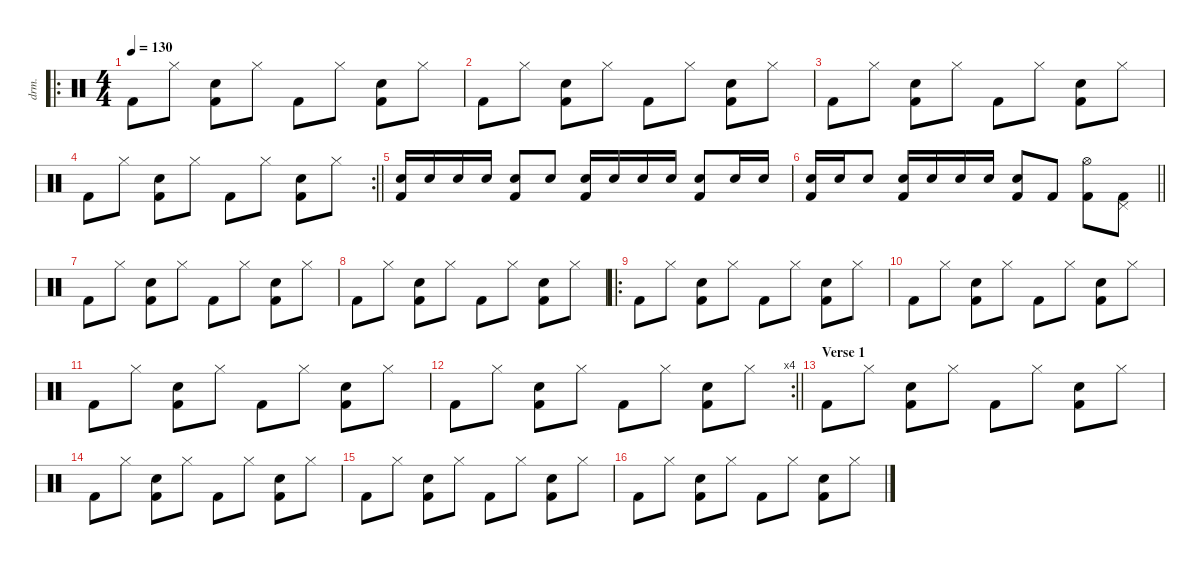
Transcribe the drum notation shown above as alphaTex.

\defaultSystemsLayout 4
\hideDynamics
\bracketExtendMode nobrackets
\otherSystemsTrackNameOrientation horizontal
\track ("Percussion" "drm.") {defaultSystemsLayout 4 instrument percussion}
\staff {score}
\articulation defaults
\ro
\ts (4 4)
\tempo 130
\clef neutral
\ks c "Kick (hit) 2".8{dy f beam Down} "Hi-Hat (closed)".8{beam Down}
("Snare (hit) 2" "Kick (hit) 2").8{beam Down} "Hi-Hat (closed)".8{beam Down} "Kick (hit) 2".8{beam Down} "Hi-Hat (closed)".8{beam Down} ("Snare (hit) 2" "Kick (hit) 2").8{beam Down} "Hi-Hat (closed)".8{beam Down} |
"Kick (hit) 2".8{beam Down} "Hi-Hat (closed)".8{beam Down} ("Snare (hit) 2" "Kick (hit) 2").8{beam Down} "Hi-Hat (closed)".8{beam Down} "Kick (hit) 2".8{beam Down} "Hi-Hat (closed)".8{beam Down} ("Snare (hit) 2" "Kick (hit) 2").8{beam Down} "Hi-Hat (closed)".8{beam Down} |
"Kick (hit) 2".8{beam Down} "Hi-Hat (closed)".8{beam Down} ("Snare (hit) 2" "Kick (hit) 2").8{beam Down} "Hi-Hat (closed)".8{beam Down} "Kick (hit) 2".8{beam Down} "Hi-Hat (closed)".8{beam Down} ("Snare (hit) 2" "Kick (hit) 2").8{beam Down} "Hi-Hat (closed)".8{beam Down} |
\rc 2
\barLineRight lightlight "Kick (hit) 2".8{beam Down} "Hi-Hat (closed)".8{beam Down}
("Snare (hit) 2" "Kick (hit) 2").8{beam Down} "Hi-Hat (closed)".8{beam Down} "Kick (hit) 2".8{beam Down} "Hi-Hat (closed)".8{beam Down} ("Snare (hit) 2" "Kick (hit) 2").8{beam Down} "Hi-Hat (closed)".8{beam Down} |
("Snare (hit) 2" "Kick (hit) 2").16{beam Up} "Snare (hit) 2".16{beam Up} "Snare (hit) 2".16{beam Up} "Snare (hit) 2".16{beam Up} ("Snare (hit) 2" "Kick (hit) 2").8{beam Up} "Snare (hit) 2".8{beam Up} ("Snare (hit) 2" "Kick (hit) 2").16{beam Up} "Snare (hit) 2".16{beam Up} "Snare (hit) 2".16{beam Up} "Snare (hit) 2".16{beam Up} ("Snare (hit) 2" "Kick (hit) 2").8{beam Up} "Snare (hit) 2".16{beam Up} "Snare (hit) 2".16{beam Up} |
\barLineRight lightlight
("Snare (hit) 2" "Kick (hit) 2").16{beam Up} "Snare (hit) 2".16{beam Up} "Snare (hit) 2".8{beam Up} ("Snare (hit) 2" "Kick (hit) 2").16{beam Up} "Snare (hit) 2".16{beam Up} "Snare (hit) 2".16{beam Up} "Snare (hit) 2".16{beam Up} ("Snare (hit) 2" "Kick (hit) 2").8{beam Up} "Kick (hit) 2".8{beam Up} ("Hi-Hat (open)" "Kick (hit) 2").8{beam Down} ("Pedal Hi-Hat (hit)" "Kick (hit) 2").8{beam Down} |
"Kick (hit) 2".8{beam Down} "Hi-Hat (closed)".8{beam Down} ("Snare (hit) 2" "Kick (hit) 2").8{beam Down} "Hi-Hat (closed)".8{beam Down} "Kick (hit) 2".8{beam Down} "Hi-Hat (closed)".8{beam Down} ("Snare (hit) 2" "Kick (hit) 2").8{beam Down} "Hi-Hat (closed)".8{beam Down} |
"Kick (hit) 2".8{beam Down} "Hi-Hat (closed)".8{beam Down} ("Snare (hit) 2" "Kick (hit) 2").8{beam Down} "Hi-Hat (closed)".8{beam Down} "Kick (hit) 2".8{beam Down} "Hi-Hat (closed)".8{beam Down} ("Snare (hit) 2" "Kick (hit) 2").8{beam Down} "Hi-Hat (closed)".8{beam Down} |
\ro "Kick (hit) 2".8{beam Down} "Hi-Hat (closed)".8{beam Down}
("Snare (hit) 2" "Kick (hit) 2").8{beam Down} "Hi-Hat (closed)".8{beam Down} "Kick (hit) 2".8{beam Down} "Hi-Hat (closed)".8{beam Down} ("Snare (hit) 2" "Kick (hit) 2").8{beam Down} "Hi-Hat (closed)".8{beam Down} |
"Kick (hit) 2".8{beam Down} "Hi-Hat (closed)".8{beam Down} ("Snare (hit) 2" "Kick (hit) 2").8{beam Down} "Hi-Hat (closed)".8{beam Down} "Kick (hit) 2".8{beam Down} "Hi-Hat (closed)".8{beam Down} ("Snare (hit) 2" "Kick (hit) 2").8{beam Down} "Hi-Hat (closed)".8{beam Down} |
"Kick (hit) 2".8{beam Down} "Hi-Hat (closed)".8{beam Down} ("Snare (hit) 2" "Kick (hit) 2").8{beam Down} "Hi-Hat (closed)".8{beam Down} "Kick (hit) 2".8{beam Down} "Hi-Hat (closed)".8{beam Down} ("Snare (hit) 2" "Kick (hit) 2").8{beam Down} "Hi-Hat (closed)".8{beam Down} |
\rc 4
\barLineRight lightlight "Kick (hit) 2".8{beam Down} "Hi-Hat (closed)".8{beam Down}
("Snare (hit) 2" "Kick (hit) 2").8{beam Down} "Hi-Hat (closed)".8{beam Down} "Kick (hit) 2".8{beam Down} "Hi-Hat (closed)".8{beam Down} ("Snare (hit) 2" "Kick (hit) 2").8{beam Down} "Hi-Hat (closed)".8{beam Down} |
\section ("" "Verse 1")
"Kick (hit) 2".8{beam Down} "Hi-Hat (closed)".8{beam Down} ("Snare (hit) 2" "Kick (hit) 2").8{beam Down} "Hi-Hat (closed)".8{beam Down} "Kick (hit) 2".8{beam Down} "Hi-Hat (closed)".8{beam Down} ("Snare (hit) 2" "Kick (hit) 2").8{beam Down} "Hi-Hat (closed)".8{beam Down} |
"Kick (hit) 2".8{beam Down} "Hi-Hat (closed)".8{beam Down} ("Snare (hit) 2" "Kick (hit) 2").8{beam Down} "Hi-Hat (closed)".8{beam Down} "Kick (hit) 2".8{beam Down} "Hi-Hat (closed)".8{beam Down} ("Snare (hit) 2" "Kick (hit) 2").8{beam Down} "Hi-Hat (closed)".8{beam Down} |
"Kick (hit) 2".8{beam Down} "Hi-Hat (closed)".8{beam Down} ("Snare (hit) 2" "Kick (hit) 2").8{beam Down} "Hi-Hat (closed)".8{beam Down} "Kick (hit) 2".8{beam Down} "Hi-Hat (closed)".8{beam Down} ("Snare (hit) 2" "Kick (hit) 2").8{beam Down} "Hi-Hat (closed)".8{beam Down} |
"Kick (hit) 2".8{beam Down} "Hi-Hat (closed)".8{beam Down} ("Snare (hit) 2" "Kick (hit) 2").8{beam Down} "Hi-Hat (closed)".8{beam Down} "Kick (hit) 2".8{beam Down} "Hi-Hat (closed)".8{beam Down} ("Snare (hit) 2" "Kick (hit) 2").8{beam Down} "Hi-Hat (closed)".8{beam Down}
